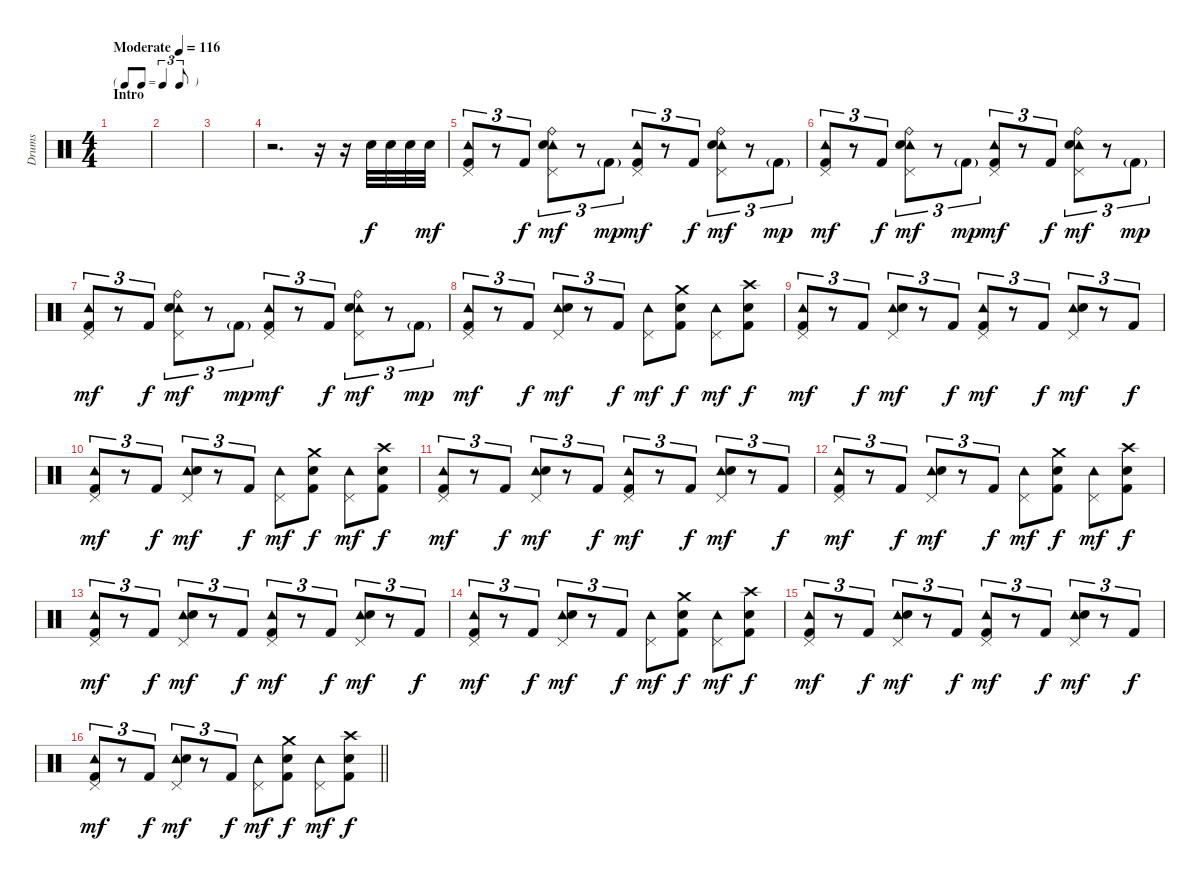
\track ("Drums" "Drums") {instrument percussion}
\staff {score}
\articulation defaults
\ts (4 4)
\tf triplet8th
\section ("" "Intro")
\tempo (116 "Moderate")
\clef neutral
\ks c
|
|
|
r.2{d} r.16 r.16 "Snare (hit) 2".32 "Snare (hit) 2".32 "Snare (hit) 2".32 "Snare (hit) 2".32{dy mf} |
("Tambourine (hit)" "Pedal Hi-Hat (hit)" "Kick (hit) 2").8{tu (3 2)} r.8{tu (3 2)} "Kick (hit) 2".8{tu (3 2) dy f} ("Tambourine (hit)" "Ride (bell)" "Snare (hit) 2" "Pedal Hi-Hat (hit)").8{tu (3 2) dy mf} r.8{tu (3 2)} "Kick (hit) 2"{g}.8{tu (3 2) dy mp} ("Tambourine (hit)" "Pedal Hi-Hat (hit)" "Kick (hit) 2").8{tu (3 2) dy mf} r.8{tu (3 2)} "Kick (hit) 2".8{tu (3 2) dy f} ("Tambourine (hit)" "Ride (bell)" "Snare (hit) 2" "Pedal Hi-Hat (hit)").8{tu (3 2) dy mf} r.8{tu (3 2)} "Kick (hit) 2"{g}.8{tu (3 2) dy mp} |
("Tambourine (hit)" "Pedal Hi-Hat (hit)" "Kick (hit) 2").8{tu (3 2) dy mf} r.8{tu (3 2)} "Kick (hit) 2".8{tu (3 2) dy f} ("Tambourine (hit)" "Ride (bell)" "Snare (hit) 2" "Pedal Hi-Hat (hit)").8{tu (3 2) dy mf} r.8{tu (3 2)} "Kick (hit) 2"{g}.8{tu (3 2) dy mp} ("Tambourine (hit)" "Pedal Hi-Hat (hit)" "Kick (hit) 2").8{tu (3 2) dy mf} r.8{tu (3 2)} "Kick (hit) 2".8{tu (3 2) dy f} ("Tambourine (hit)" "Ride (bell)" "Snare (hit) 2" "Pedal Hi-Hat (hit)").8{tu (3 2) dy mf} r.8{tu (3 2)} "Kick (hit) 2"{g}.8{tu (3 2) dy mp} |
("Tambourine (hit)" "Pedal Hi-Hat (hit)" "Kick (hit) 2").8{tu (3 2) dy mf} r.8{tu (3 2)} "Kick (hit) 2".8{tu (3 2) dy f} ("Tambourine (hit)" "Ride (bell)" "Snare (hit) 2" "Pedal Hi-Hat (hit)").8{tu (3 2) dy mf} r.8{tu (3 2)} "Kick (hit) 2"{g}.8{tu (3 2) dy mp} ("Tambourine (hit)" "Pedal Hi-Hat (hit)" "Kick (hit) 2").8{tu (3 2) dy mf} r.8{tu (3 2)} "Kick (hit) 2".8{tu (3 2) dy f} ("Tambourine (hit)" "Ride (bell)" "Snare (hit) 2" "Pedal Hi-Hat (hit)").8{tu (3 2) dy mf} r.8{tu (3 2)} "Kick (hit) 2"{g}.8{tu (3 2) dy mp} |
("Tambourine (hit)" "Pedal Hi-Hat (hit)" "Kick (hit) 2").8{tu (3 2) dy mf} r.8{tu (3 2)} "Kick (hit) 2".8{tu (3 2) dy f} ("Tambourine (hit)" "Pedal Hi-Hat (hit)" "Snare (hit) 2").8{tu (3 2) dy mf} r.8{tu (3 2)} "Kick (hit) 2".8{tu (3 2) dy f} ("Tambourine (hit)" "Pedal Hi-Hat (hit)").8{dy mf} ("Crash medium (hit)" "Snare (hit) 2" "Kick (hit) 2").8{dy f} ("Tambourine (hit)" "Pedal Hi-Hat (hit)").8{dy mf} ("Crash high (hit)" "Snare (hit) 2" "Kick (hit) 2").8{dy f} |
("Tambourine (hit)" "Pedal Hi-Hat (hit)" "Kick (hit) 2").8{tu (3 2) dy mf} r.8{tu (3 2)} "Kick (hit) 2".8{tu (3 2) dy f} ("Tambourine (hit)" "Pedal Hi-Hat (hit)" "Snare (hit) 2").8{tu (3 2) dy mf} r.8{tu (3 2)} "Kick (hit) 2".8{tu (3 2) dy f} ("Tambourine (hit)" "Pedal Hi-Hat (hit)" "Kick (hit) 2").8{tu (3 2) dy mf} r.8{tu (3 2)} "Kick (hit) 2".8{tu (3 2) dy f} ("Tambourine (hit)" "Pedal Hi-Hat (hit)" "Snare (hit) 2").8{tu (3 2) dy mf} r.8{tu (3 2)} "Kick (hit) 2".8{tu (3 2) dy f} |
("Tambourine (hit)" "Pedal Hi-Hat (hit)" "Kick (hit) 2").8{tu (3 2) dy mf} r.8{tu (3 2)} "Kick (hit) 2".8{tu (3 2) dy f} ("Tambourine (hit)" "Pedal Hi-Hat (hit)" "Snare (hit) 2").8{tu (3 2) dy mf} r.8{tu (3 2)} "Kick (hit) 2".8{tu (3 2) dy f} ("Tambourine (hit)" "Pedal Hi-Hat (hit)").8{dy mf} ("Crash medium (hit)" "Snare (hit) 2" "Kick (hit) 2").8{dy f} ("Tambourine (hit)" "Pedal Hi-Hat (hit)").8{dy mf} ("Crash high (hit)" "Snare (hit) 2" "Kick (hit) 2").8{dy f} |
("Tambourine (hit)" "Pedal Hi-Hat (hit)" "Kick (hit) 2").8{tu (3 2) dy mf} r.8{tu (3 2)} "Kick (hit) 2".8{tu (3 2) dy f} ("Tambourine (hit)" "Pedal Hi-Hat (hit)" "Snare (hit) 2").8{tu (3 2) dy mf} r.8{tu (3 2)} "Kick (hit) 2".8{tu (3 2) dy f} ("Tambourine (hit)" "Pedal Hi-Hat (hit)" "Kick (hit) 2").8{tu (3 2) dy mf} r.8{tu (3 2)} "Kick (hit) 2".8{tu (3 2) dy f} ("Tambourine (hit)" "Pedal Hi-Hat (hit)" "Snare (hit) 2").8{tu (3 2) dy mf} r.8{tu (3 2)} "Kick (hit) 2".8{tu (3 2) dy f} |
("Tambourine (hit)" "Pedal Hi-Hat (hit)" "Kick (hit) 2").8{tu (3 2) dy mf} r.8{tu (3 2)} "Kick (hit) 2".8{tu (3 2) dy f} ("Tambourine (hit)" "Pedal Hi-Hat (hit)" "Snare (hit) 2").8{tu (3 2) dy mf} r.8{tu (3 2)} "Kick (hit) 2".8{tu (3 2) dy f} ("Tambourine (hit)" "Pedal Hi-Hat (hit)").8{dy mf} ("Crash medium (hit)" "Snare (hit) 2" "Kick (hit) 2").8{dy f} ("Tambourine (hit)" "Pedal Hi-Hat (hit)").8{dy mf} ("Crash high (hit)" "Snare (hit) 2" "Kick (hit) 2").8{dy f} |
("Tambourine (hit)" "Pedal Hi-Hat (hit)" "Kick (hit) 2").8{tu (3 2) dy mf} r.8{tu (3 2)} "Kick (hit) 2".8{tu (3 2) dy f} ("Tambourine (hit)" "Pedal Hi-Hat (hit)" "Snare (hit) 2").8{tu (3 2) dy mf} r.8{tu (3 2)} "Kick (hit) 2".8{tu (3 2) dy f} ("Tambourine (hit)" "Pedal Hi-Hat (hit)" "Kick (hit) 2").8{tu (3 2) dy mf} r.8{tu (3 2)} "Kick (hit) 2".8{tu (3 2) dy f} ("Tambourine (hit)" "Pedal Hi-Hat (hit)" "Snare (hit) 2").8{tu (3 2) dy mf} r.8{tu (3 2)} "Kick (hit) 2".8{tu (3 2) dy f} |
("Tambourine (hit)" "Pedal Hi-Hat (hit)" "Kick (hit) 2").8{tu (3 2) dy mf} r.8{tu (3 2)} "Kick (hit) 2".8{tu (3 2) dy f} ("Tambourine (hit)" "Pedal Hi-Hat (hit)" "Snare (hit) 2").8{tu (3 2) dy mf} r.8{tu (3 2)} "Kick (hit) 2".8{tu (3 2) dy f} ("Tambourine (hit)" "Pedal Hi-Hat (hit)").8{dy mf} ("Crash medium (hit)" "Snare (hit) 2" "Kick (hit) 2").8{dy f} ("Tambourine (hit)" "Pedal Hi-Hat (hit)").8{dy mf} ("Crash high (hit)" "Snare (hit) 2" "Kick (hit) 2").8{dy f} |
("Tambourine (hit)" "Pedal Hi-Hat (hit)" "Kick (hit) 2").8{tu (3 2) dy mf} r.8{tu (3 2)} "Kick (hit) 2".8{tu (3 2) dy f} ("Tambourine (hit)" "Pedal Hi-Hat (hit)" "Snare (hit) 2").8{tu (3 2) dy mf} r.8{tu (3 2)} "Kick (hit) 2".8{tu (3 2) dy f} ("Tambourine (hit)" "Pedal Hi-Hat (hit)" "Kick (hit) 2").8{tu (3 2) dy mf} r.8{tu (3 2)} "Kick (hit) 2".8{tu (3 2) dy f} ("Tambourine (hit)" "Pedal Hi-Hat (hit)" "Snare (hit) 2").8{tu (3 2) dy mf} r.8{tu (3 2)} "Kick (hit) 2".8{tu (3 2) dy f} |
\barLineRight lightlight
("Tambourine (hit)" "Pedal Hi-Hat (hit)" "Kick (hit) 2").8{tu (3 2) dy mf} r.8{tu (3 2)} "Kick (hit) 2".8{tu (3 2) dy f} ("Tambourine (hit)" "Pedal Hi-Hat (hit)" "Snare (hit) 2").8{tu (3 2) dy mf} r.8{tu (3 2)} "Kick (hit) 2".8{tu (3 2) dy f} ("Tambourine (hit)" "Pedal Hi-Hat (hit)").8{dy mf} ("Crash medium (hit)" "Snare (hit) 2" "Kick (hit) 2").8{dy f} ("Tambourine (hit)" "Pedal Hi-Hat (hit)").8{dy mf} ("Crash high (hit)" "Snare (hit) 2" "Kick (hit) 2").8{dy f}
